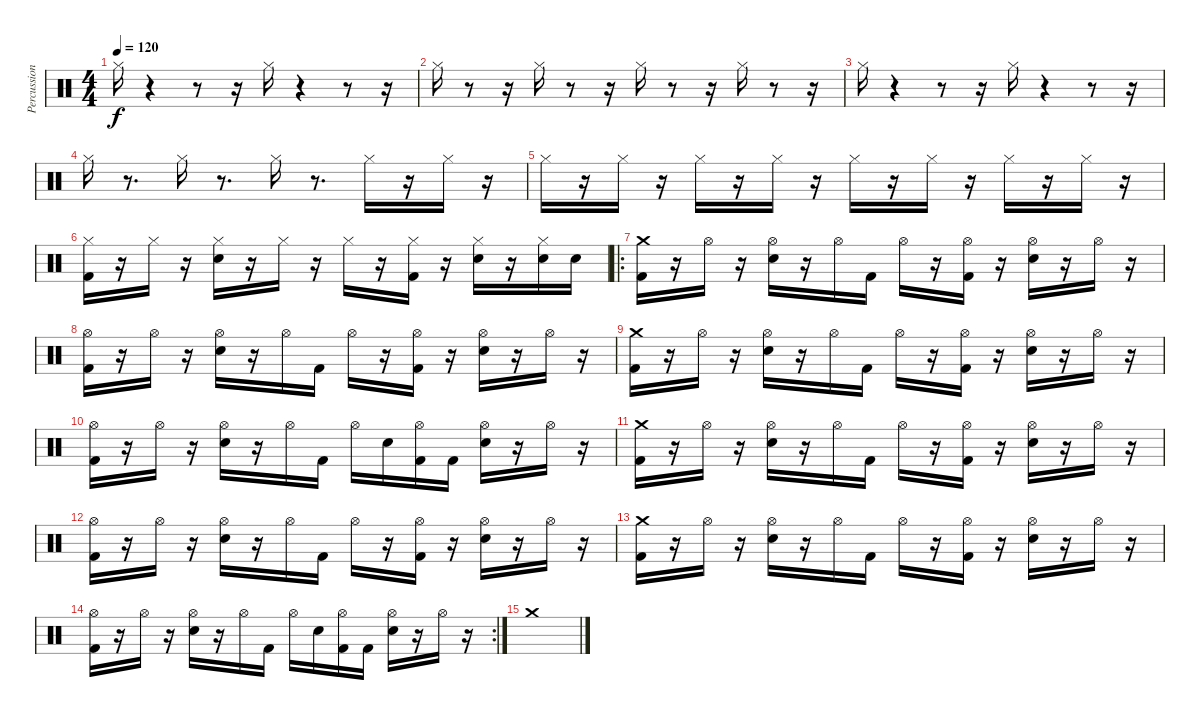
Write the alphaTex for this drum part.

\track ("Percussion" "Percussion") {instrument percussion}
\staff {score}
\articulation defaults
\ts (4 4)
\tempo 120
\clef neutral
\ks c "Hi-Hat (closed)".16{dy f}
r.4 r.8 r.16 "Hi-Hat (closed)".16 r.4 r.8 r.16 |
"Hi-Hat (closed)".16 r.8 r.16 "Hi-Hat (closed)".16 r.8 r.16 "Hi-Hat (closed)".16 r.8 r.16 "Hi-Hat (closed)".16 r.8 r.16 |
"Hi-Hat (closed)".16 r.4 r.8 r.16 "Hi-Hat (closed)".16 r.4 r.8 r.16 |
"Hi-Hat (closed)".16 r.8{d} "Hi-Hat (closed)".16 r.8{d} "Hi-Hat (closed)".16 r.8{d} "Hi-Hat (closed)".16 r.16 "Hi-Hat (closed)".16 r.16 |
"Hi-Hat (closed)".16 r.16 "Hi-Hat (closed)".16 r.16 "Hi-Hat (closed)".16 r.16 "Hi-Hat (closed)".16 r.16 "Hi-Hat (closed)".16 r.16 "Hi-Hat (closed)".16 r.16 "Hi-Hat (closed)".16 r.16 "Hi-Hat (closed)".16 r.16 |
("Hi-Hat (closed)" "Kick (hit) 2").16 r.16 "Hi-Hat (closed)".16 r.16 ("Hi-Hat (closed)" "Electric Snare (hit)").16 r.16 "Hi-Hat (closed)".16 r.16 "Hi-Hat (closed)".16 r.16 ("Hi-Hat (closed)" "Kick (hit) 2").16 r.16 ("Hi-Hat (closed)" "Electric Snare (hit)").16 r.16 ("Hi-Hat (closed)" "Electric Snare (hit)").16 "Electric Snare (hit)".16 |
\ro
("Kick (hit) 2" "Crash medium (hit)").16 r.16 "Hi-Hat (open)".16 r.16 ("Electric Snare (hit)" "Hi-Hat (open)").16 r.16 "Hi-Hat (open)".16 "Kick (hit) 2".16 "Hi-Hat (open)".16 r.16 ("Hi-Hat (open)" "Kick (hit) 2").16 r.16 ("Hi-Hat (open)" "Electric Snare (hit)").16 r.16 "Hi-Hat (open)".16 r.16 |
("Hi-Hat (open)" "Kick (hit) 2").16 r.16 "Hi-Hat (open)".16 r.16 ("Hi-Hat (open)" "Electric Snare (hit)").16 r.16 "Hi-Hat (open)".16 "Kick (hit) 2".16 "Hi-Hat (open)".16 r.16 ("Hi-Hat (open)" "Kick (hit) 2").16 r.16 ("Hi-Hat (open)" "Electric Snare (hit)").16 r.16 "Hi-Hat (open)".16 r.16 |
("Kick (hit) 2" "Crash medium (hit)").16 r.16 "Hi-Hat (open)".16 r.16 ("Electric Snare (hit)" "Hi-Hat (open)").16 r.16 "Hi-Hat (open)".16 "Kick (hit) 2".16 "Hi-Hat (open)".16 r.16 ("Hi-Hat (open)" "Kick (hit) 2").16 r.16 ("Hi-Hat (open)" "Electric Snare (hit)").16 r.16 "Hi-Hat (open)".16 r.16 |
("Hi-Hat (open)" "Kick (hit) 2").16 r.16 "Hi-Hat (open)".16 r.16 ("Hi-Hat (open)" "Electric Snare (hit)").16 r.16 "Hi-Hat (open)".16 "Kick (hit) 2".16 "Hi-Hat (open)".16 "Electric Snare (hit)".16 ("Hi-Hat (open)" "Kick (hit) 2").16 "Kick (hit) 2".16 ("Hi-Hat (open)" "Electric Snare (hit)").16 r.16 "Hi-Hat (open)".16 r.16 |
("Kick (hit) 2" "Crash medium (hit)").16 r.16 "Hi-Hat (open)".16 r.16 ("Electric Snare (hit)" "Hi-Hat (open)").16 r.16 "Hi-Hat (open)".16 "Kick (hit) 2".16 "Hi-Hat (open)".16 r.16 ("Hi-Hat (open)" "Kick (hit) 2").16 r.16 ("Hi-Hat (open)" "Electric Snare (hit)").16 r.16 "Hi-Hat (open)".16 r.16 |
("Hi-Hat (open)" "Kick (hit) 2").16 r.16 "Hi-Hat (open)".16 r.16 ("Hi-Hat (open)" "Electric Snare (hit)").16 r.16 "Hi-Hat (open)".16 "Kick (hit) 2".16 "Hi-Hat (open)".16 r.16 ("Hi-Hat (open)" "Kick (hit) 2").16 r.16 ("Hi-Hat (open)" "Electric Snare (hit)").16 r.16 "Hi-Hat (open)".16 r.16 |
("Kick (hit) 2" "Crash medium (hit)").16 r.16 "Hi-Hat (open)".16 r.16 ("Electric Snare (hit)" "Hi-Hat (open)").16 r.16 "Hi-Hat (open)".16 "Kick (hit) 2".16 "Hi-Hat (open)".16 r.16 ("Hi-Hat (open)" "Kick (hit) 2").16 r.16 ("Hi-Hat (open)" "Electric Snare (hit)").16 r.16 "Hi-Hat (open)".16 r.16 |
\rc 2
("Hi-Hat (open)" "Kick (hit) 2").16 r.16 "Hi-Hat (open)".16 r.16 ("Hi-Hat (open)" "Electric Snare (hit)").16 r.16 "Hi-Hat (open)".16 "Kick (hit) 2".16 "Hi-Hat (open)".16 "Electric Snare (hit)".16 ("Hi-Hat (open)" "Kick (hit) 2").16 "Kick (hit) 2".16 ("Hi-Hat (open)" "Electric Snare (hit)").16 r.16 "Hi-Hat (open)".16 r.16 |
"Crash medium (hit)".1
